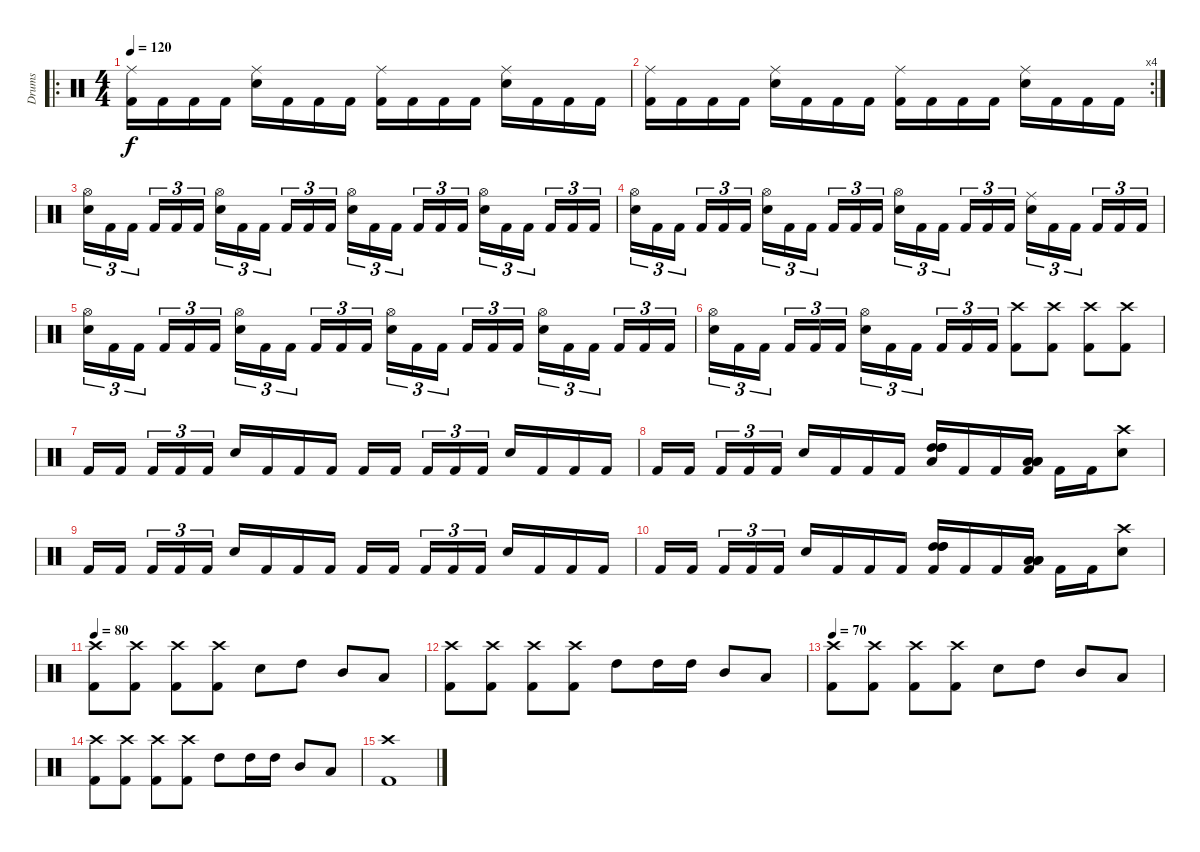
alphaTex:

\track ("Drums" "Drums") {instrument percussion}
\staff {score}
\articulation defaults
\ro
\ts (4 4)
\tempo 120
\clef neutral
\ks c
("Ride (middle)" "Kick (hit) 2").16{dy f} "Kick (hit) 2".16 "Kick (hit) 2".16 "Kick (hit) 2".16 ("Ride (middle)" "Electric Snare (hit)").16 "Kick (hit) 2".16 "Kick (hit) 2".16 "Kick (hit) 2".16 ("Ride (middle)" "Kick (hit) 2").16 "Kick (hit) 2".16 "Kick (hit) 2".16 "Kick (hit) 2".16 ("Ride (middle)" "Electric Snare (hit)").16 "Kick (hit) 2".16 "Kick (hit) 2".16 "Kick (hit) 2".16 |
\rc 4
("Ride (middle)" "Kick (hit) 2").16 "Kick (hit) 2".16 "Kick (hit) 2".16 "Kick (hit) 2".16 ("Ride (middle)" "Electric Snare (hit)").16 "Kick (hit) 2".16 "Kick (hit) 2".16 "Kick (hit) 2".16 ("Ride (middle)" "Kick (hit) 2").16 "Kick (hit) 2".16 "Kick (hit) 2".16 "Kick (hit) 2".16 ("Ride (middle)" "Electric Snare (hit)").16 "Kick (hit) 2".16 "Kick (hit) 2".16 "Kick (hit) 2".16 |
("Hi-Hat (open)" "Electric Snare (hit)").16{tu (3 2)} "Kick (hit) 2".16{tu (3 2)} "Kick (hit) 2".16{tu (3 2) beam splitsecondary} "Kick (hit) 2".16{tu (3 2)} "Kick (hit) 2".16{tu (3 2)} "Kick (hit) 2".16{tu (3 2)} ("Hi-Hat (open)" "Electric Snare (hit)").16{tu (3 2)} "Kick (hit) 2".16{tu (3 2)} "Kick (hit) 2".16{tu (3 2) beam splitsecondary} "Kick (hit) 2".16{tu (3 2)} "Kick (hit) 2".16{tu (3 2)} "Kick (hit) 2".16{tu (3 2)} ("Hi-Hat (open)" "Electric Snare (hit)").16{tu (3 2)} "Kick (hit) 2".16{tu (3 2)} "Kick (hit) 2".16{tu (3 2) beam splitsecondary} "Kick (hit) 2".16{tu (3 2)} "Kick (hit) 2".16{tu (3 2)} "Kick (hit) 2".16{tu (3 2)} ("Hi-Hat (open)" "Electric Snare (hit)").16{tu (3 2)} "Kick (hit) 2".16{tu (3 2)} "Kick (hit) 2".16{tu (3 2) beam splitsecondary} "Kick (hit) 2".16{tu (3 2)} "Kick (hit) 2".16{tu (3 2)} "Kick (hit) 2".16{tu (3 2)} |
("Hi-Hat (open)" "Electric Snare (hit)").16{tu (3 2)} "Kick (hit) 2".16{tu (3 2)} "Kick (hit) 2".16{tu (3 2) beam splitsecondary} "Kick (hit) 2".16{tu (3 2)} "Kick (hit) 2".16{tu (3 2)} "Kick (hit) 2".16{tu (3 2)} ("Hi-Hat (open)" "Electric Snare (hit)").16{tu (3 2)} "Kick (hit) 2".16{tu (3 2)} "Kick (hit) 2".16{tu (3 2) beam splitsecondary} "Kick (hit) 2".16{tu (3 2)} "Kick (hit) 2".16{tu (3 2)} "Kick (hit) 2".16{tu (3 2)} ("Hi-Hat (open)" "Electric Snare (hit)").16{tu (3 2)} "Kick (hit) 2".16{tu (3 2)} "Kick (hit) 2".16{tu (3 2) beam splitsecondary} "Kick (hit) 2".16{tu (3 2)} "Kick (hit) 2".16{tu (3 2)} "Kick (hit) 2".16{tu (3 2)} ("Ride (middle)" "Electric Snare (hit)").16{tu (3 2)} "Kick (hit) 2".16{tu (3 2)} "Kick (hit) 2".16{tu (3 2) beam splitsecondary} "Kick (hit) 2".16{tu (3 2)} "Kick (hit) 2".16{tu (3 2)} "Kick (hit) 2".16{tu (3 2)} |
("Hi-Hat (open)" "Electric Snare (hit)").16{tu (3 2)} "Kick (hit) 2".16{tu (3 2)} "Kick (hit) 2".16{tu (3 2) beam splitsecondary} "Kick (hit) 2".16{tu (3 2)} "Kick (hit) 2".16{tu (3 2)} "Kick (hit) 2".16{tu (3 2)} ("Hi-Hat (open)" "Electric Snare (hit)").16{tu (3 2)} "Kick (hit) 2".16{tu (3 2)} "Kick (hit) 2".16{tu (3 2) beam splitsecondary} "Kick (hit) 2".16{tu (3 2)} "Kick (hit) 2".16{tu (3 2)} "Kick (hit) 2".16{tu (3 2)} ("Hi-Hat (open)" "Electric Snare (hit)").16{tu (3 2)} "Kick (hit) 2".16{tu (3 2)} "Kick (hit) 2".16{tu (3 2) beam splitsecondary} "Kick (hit) 2".16{tu (3 2)} "Kick (hit) 2".16{tu (3 2)} "Kick (hit) 2".16{tu (3 2)} ("Hi-Hat (open)" "Electric Snare (hit)").16{tu (3 2)} "Kick (hit) 2".16{tu (3 2)} "Kick (hit) 2".16{tu (3 2) beam splitsecondary} "Kick (hit) 2".16{tu (3 2)} "Kick (hit) 2".16{tu (3 2)} "Kick (hit) 2".16{tu (3 2)} |
("Hi-Hat (open)" "Electric Snare (hit)").16{tu (3 2)} "Kick (hit) 2".16{tu (3 2)} "Kick (hit) 2".16{tu (3 2) beam splitsecondary} "Kick (hit) 2".16{tu (3 2)} "Kick (hit) 2".16{tu (3 2)} "Kick (hit) 2".16{tu (3 2)} ("Hi-Hat (open)" "Electric Snare (hit)").16{tu (3 2)} "Kick (hit) 2".16{tu (3 2)} "Kick (hit) 2".16{tu (3 2) beam splitsecondary} "Kick (hit) 2".16{tu (3 2)} "Kick (hit) 2".16{tu (3 2)} "Kick (hit) 2".16{tu (3 2)} ("Crash high (hit)" "Kick (hit) 2").8 ("Crash high (hit)" "Kick (hit) 2").8 ("Crash high (hit)" "Kick (hit) 2").8 ("Crash high (hit)" "Kick (hit) 2").8 |
"Kick (hit) 2".16 "Kick (hit) 2".16{beam splitsecondary} "Kick (hit) 2".16{tu (3 2)} "Kick (hit) 2".16{tu (3 2)} "Kick (hit) 2".16{tu (3 2)} "Electric Snare (hit)".16 "Kick (hit) 2".16 "Kick (hit) 2".16 "Kick (hit) 2".16 "Kick (hit) 2".16 "Kick (hit) 2".16{beam splitsecondary} "Kick (hit) 2".16{tu (3 2)} "Kick (hit) 2".16{tu (3 2)} "Kick (hit) 2".16{tu (3 2)} "Electric Snare (hit)".16 "Kick (hit) 2".16 "Kick (hit) 2".16 "Kick (hit) 2".16 |
"Kick (hit) 2".16 "Kick (hit) 2".16{beam splitsecondary} "Kick (hit) 2".16{tu (3 2)} "Kick (hit) 2".16{tu (3 2)} "Kick (hit) 2".16{tu (3 2)} "Electric Snare (hit)".16 "Kick (hit) 2".16 "Kick (hit) 2".16 "Kick (hit) 2".16 ("High Tom (hit)" "High Tom (hit)" "High Tom (hit)" "Low Tom (hit)").16 "Kick (hit) 2".16 "Kick (hit) 2".16 ("Low Tom (hit)" "Low Tom (hit)" "Low Tom (hit)" "Kick (hit) 2").16 "Kick (hit) 2".16 "Kick (hit) 2".16 ("Crash high (hit)" "Electric Snare (hit)").8 |
"Kick (hit) 2".16 "Kick (hit) 2".16{beam splitsecondary} "Kick (hit) 2".16{tu (3 2)} "Kick (hit) 2".16{tu (3 2)} "Kick (hit) 2".16{tu (3 2)} "Electric Snare (hit)".16 "Kick (hit) 2".16 "Kick (hit) 2".16 "Kick (hit) 2".16 "Kick (hit) 2".16 "Kick (hit) 2".16{beam splitsecondary} "Kick (hit) 2".16{tu (3 2)} "Kick (hit) 2".16{tu (3 2)} "Kick (hit) 2".16{tu (3 2)} "Electric Snare (hit)".16 "Kick (hit) 2".16 "Kick (hit) 2".16 "Kick (hit) 2".16 |
"Kick (hit) 2".16 "Kick (hit) 2".16{beam splitsecondary} "Kick (hit) 2".16{tu (3 2)} "Kick (hit) 2".16{tu (3 2)} "Kick (hit) 2".16{tu (3 2)} "Electric Snare (hit)".16 "Kick (hit) 2".16 "Kick (hit) 2".16 "Kick (hit) 2".16 ("High Tom (hit)" "High Tom (hit)" "High Tom (hit)" "Kick (hit) 2").16 "Kick (hit) 2".16 "Kick (hit) 2".16 ("Low Tom (hit)" "Low Tom (hit)" "Low Tom (hit)" "Kick (hit) 2").16 "Kick (hit) 2".16 "Kick (hit) 2".16 ("Crash high (hit)" "Electric Snare (hit)").8 |
\tempo 80
("Crash high (hit)" "Kick (hit) 2").8 ("Crash high (hit)" "Kick (hit) 2").8 ("Crash high (hit)" "Kick (hit) 2").8 ("Crash high (hit)" "Kick (hit) 2").8 "Electric Snare (hit)".8 "High Tom (hit)".8 "Mid Tom (hit)".8 "Low Tom (hit)".8 |
("Crash high (hit)" "Kick (hit) 2").8 ("Crash high (hit)" "Kick (hit) 2").8 ("Crash high (hit)" "Kick (hit) 2").8 ("Crash high (hit)" "Kick (hit) 2").8 "High Tom (hit)".8 "High Tom (hit)".16 "High Tom (hit)".16 "Mid Tom (hit)".8 "Low Tom (hit)".8 |
\tempo 70
("Crash high (hit)" "Kick (hit) 2").8 ("Crash high (hit)" "Kick (hit) 2").8 ("Crash high (hit)" "Kick (hit) 2").8 ("Crash high (hit)" "Kick (hit) 2").8 "Electric Snare (hit)".8 "High Tom (hit)".8 "Mid Tom (hit)".8 "Low Tom (hit)".8 |
("Crash high (hit)" "Kick (hit) 2").8 ("Crash high (hit)" "Kick (hit) 2").8 ("Crash high (hit)" "Kick (hit) 2").8 ("Crash high (hit)" "Kick (hit) 2").8 "High Tom (hit)".8 "High Tom (hit)".16 "High Tom (hit)".16 "Mid Tom (hit)".8 "Low Tom (hit)".8 |
("Crash high (hit)" "Kick (hit) 2").1
